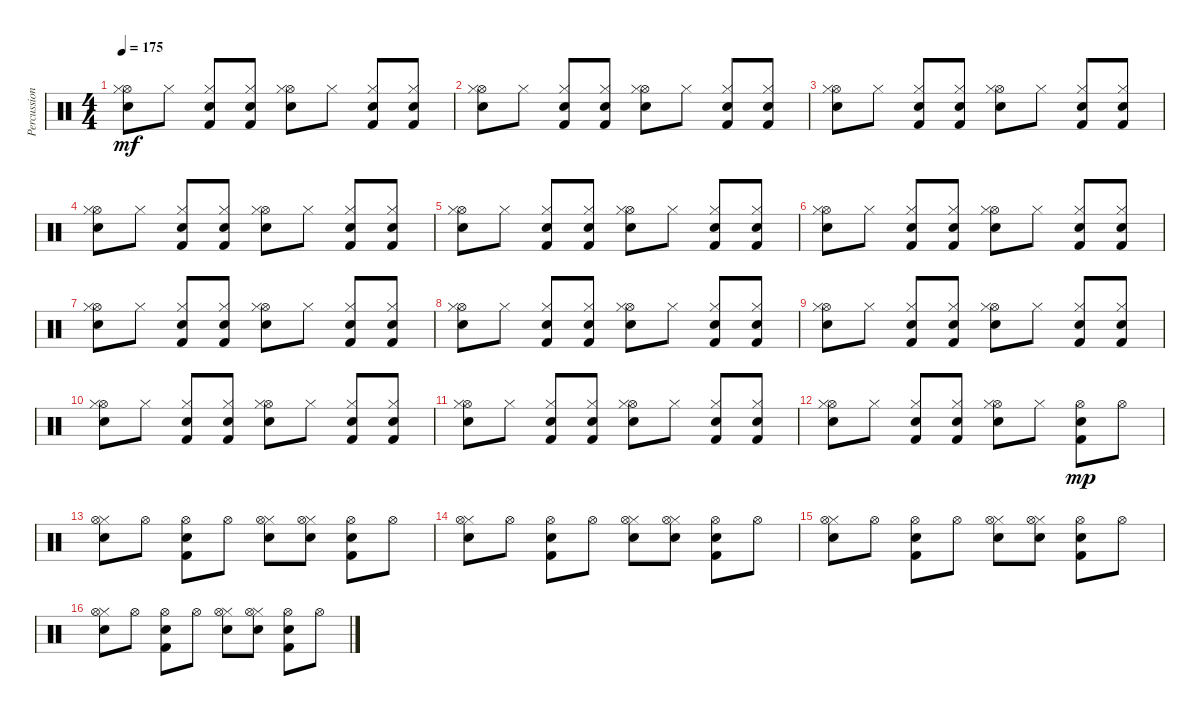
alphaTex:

\track ("Percussions" "Percussion") {instrument percussion}
\staff {score}
\articulation defaults
\ts (4 4)
\tempo 175
\clef neutral
\ks c
("Snare (hit) 2" "Hi-Hat (open)" "Hi-Hat (closed)").8{dy mf} "Hi-Hat (closed)".8 ("Kick (hit) 2" "Snare (hit) 2" "Hi-Hat (closed)").8 ("Kick (hit) 2" "Snare (hit) 2" "Hi-Hat (closed)").8 ("Snare (hit) 2" "Hi-Hat (open)" "Hi-Hat (closed)").8 "Hi-Hat (closed)".8 ("Kick (hit) 2" "Snare (hit) 2" "Hi-Hat (closed)").8 ("Kick (hit) 2" "Snare (hit) 2" "Hi-Hat (closed)").8 |
("Snare (hit) 2" "Hi-Hat (open)" "Hi-Hat (closed)").8 "Hi-Hat (closed)".8 ("Kick (hit) 2" "Snare (hit) 2" "Hi-Hat (closed)").8 ("Kick (hit) 2" "Snare (hit) 2" "Hi-Hat (closed)").8 ("Snare (hit) 2" "Hi-Hat (open)" "Hi-Hat (closed)").8 "Hi-Hat (closed)".8 ("Kick (hit) 2" "Snare (hit) 2" "Hi-Hat (closed)").8 ("Kick (hit) 2" "Snare (hit) 2" "Hi-Hat (closed)").8 |
("Snare (hit) 2" "Hi-Hat (open)" "Hi-Hat (closed)").8 "Hi-Hat (closed)".8 ("Kick (hit) 2" "Snare (hit) 2" "Hi-Hat (closed)").8 ("Kick (hit) 2" "Snare (hit) 2" "Hi-Hat (closed)").8 ("Snare (hit) 2" "Hi-Hat (open)" "Hi-Hat (closed)").8 "Hi-Hat (closed)".8 ("Kick (hit) 2" "Snare (hit) 2" "Hi-Hat (closed)").8 ("Kick (hit) 2" "Snare (hit) 2" "Hi-Hat (closed)").8 |
("Snare (hit) 2" "Hi-Hat (open)" "Hi-Hat (closed)").8 "Hi-Hat (closed)".8 ("Kick (hit) 2" "Snare (hit) 2" "Hi-Hat (closed)").8 ("Kick (hit) 2" "Snare (hit) 2" "Hi-Hat (closed)").8 ("Snare (hit) 2" "Hi-Hat (open)" "Hi-Hat (closed)").8 "Hi-Hat (closed)".8 ("Kick (hit) 2" "Snare (hit) 2" "Hi-Hat (closed)").8 ("Kick (hit) 2" "Snare (hit) 2" "Hi-Hat (closed)").8 |
("Snare (hit) 2" "Hi-Hat (open)" "Hi-Hat (closed)").8 "Hi-Hat (closed)".8 ("Kick (hit) 2" "Snare (hit) 2" "Hi-Hat (closed)").8 ("Kick (hit) 2" "Snare (hit) 2" "Hi-Hat (closed)").8 ("Snare (hit) 2" "Hi-Hat (open)" "Hi-Hat (closed)").8 "Hi-Hat (closed)".8 ("Kick (hit) 2" "Snare (hit) 2" "Hi-Hat (closed)").8 ("Kick (hit) 2" "Snare (hit) 2" "Hi-Hat (closed)").8 |
("Snare (hit) 2" "Hi-Hat (open)" "Hi-Hat (closed)").8 "Hi-Hat (closed)".8 ("Kick (hit) 2" "Snare (hit) 2" "Hi-Hat (closed)").8 ("Kick (hit) 2" "Snare (hit) 2" "Hi-Hat (closed)").8 ("Snare (hit) 2" "Hi-Hat (open)" "Hi-Hat (closed)").8 "Hi-Hat (closed)".8 ("Kick (hit) 2" "Snare (hit) 2" "Hi-Hat (closed)").8 ("Kick (hit) 2" "Snare (hit) 2" "Hi-Hat (closed)").8 |
("Snare (hit) 2" "Hi-Hat (open)" "Hi-Hat (closed)").8 "Hi-Hat (closed)".8 ("Kick (hit) 2" "Snare (hit) 2" "Hi-Hat (closed)").8 ("Kick (hit) 2" "Snare (hit) 2" "Hi-Hat (closed)").8 ("Snare (hit) 2" "Hi-Hat (open)" "Hi-Hat (closed)").8 "Hi-Hat (closed)".8 ("Kick (hit) 2" "Snare (hit) 2" "Hi-Hat (closed)").8 ("Kick (hit) 2" "Snare (hit) 2" "Hi-Hat (closed)").8 |
("Snare (hit) 2" "Hi-Hat (open)" "Hi-Hat (closed)").8 "Hi-Hat (closed)".8 ("Kick (hit) 2" "Snare (hit) 2" "Hi-Hat (closed)").8 ("Kick (hit) 2" "Snare (hit) 2" "Hi-Hat (closed)").8 ("Snare (hit) 2" "Hi-Hat (open)" "Hi-Hat (closed)").8 "Hi-Hat (closed)".8 ("Kick (hit) 2" "Snare (hit) 2" "Hi-Hat (closed)").8 ("Kick (hit) 2" "Snare (hit) 2" "Hi-Hat (closed)").8 |
("Snare (hit) 2" "Hi-Hat (open)" "Hi-Hat (closed)").8 "Hi-Hat (closed)".8 ("Kick (hit) 2" "Snare (hit) 2" "Hi-Hat (closed)").8 ("Kick (hit) 2" "Snare (hit) 2" "Hi-Hat (closed)").8 ("Snare (hit) 2" "Hi-Hat (open)" "Hi-Hat (closed)").8 "Hi-Hat (closed)".8 ("Kick (hit) 2" "Snare (hit) 2" "Hi-Hat (closed)").8 ("Kick (hit) 2" "Snare (hit) 2" "Hi-Hat (closed)").8 |
("Snare (hit) 2" "Hi-Hat (open)" "Hi-Hat (closed)").8 "Hi-Hat (closed)".8 ("Kick (hit) 2" "Snare (hit) 2" "Hi-Hat (closed)").8 ("Kick (hit) 2" "Snare (hit) 2" "Hi-Hat (closed)").8 ("Snare (hit) 2" "Hi-Hat (open)" "Hi-Hat (closed)").8 "Hi-Hat (closed)".8 ("Kick (hit) 2" "Snare (hit) 2" "Hi-Hat (closed)").8 ("Kick (hit) 2" "Snare (hit) 2" "Hi-Hat (closed)").8 |
("Snare (hit) 2" "Hi-Hat (open)" "Hi-Hat (closed)").8 "Hi-Hat (closed)".8 ("Kick (hit) 2" "Snare (hit) 2" "Hi-Hat (closed)").8 ("Kick (hit) 2" "Snare (hit) 2" "Hi-Hat (closed)").8 ("Snare (hit) 2" "Hi-Hat (open)" "Hi-Hat (closed)").8 "Hi-Hat (closed)".8 ("Kick (hit) 2" "Snare (hit) 2" "Hi-Hat (closed)").8 ("Kick (hit) 2" "Snare (hit) 2" "Hi-Hat (closed)").8 |
("Snare (hit) 2" "Hi-Hat (open)" "Hi-Hat (closed)").8 "Hi-Hat (closed)".8 ("Kick (hit) 2" "Snare (hit) 2" "Hi-Hat (closed)").8 ("Kick (hit) 2" "Snare (hit) 2" "Hi-Hat (closed)").8 ("Snare (hit) 2" "Hi-Hat (open)" "Hi-Hat (closed)").8 "Hi-Hat (closed)".8 ("Kick (hit) 2" "Snare (hit) 2" "Hi-Hat (open)").8{dy mp} "Hi-Hat (open)".8 |
("Snare (hit) 2" "Hi-Hat (closed)" "Hi-Hat (open)").8 "Hi-Hat (open)".8 ("Kick (hit) 2" "Snare (hit) 2" "Hi-Hat (open)").8 "Hi-Hat (open)".8 ("Snare (hit) 2" "Hi-Hat (closed)" "Hi-Hat (open)").8 ("Snare (hit) 2" "Hi-Hat (closed)" "Hi-Hat (open)").8 ("Kick (hit) 2" "Snare (hit) 2" "Hi-Hat (open)").8 "Hi-Hat (open)".8 |
("Snare (hit) 2" "Hi-Hat (closed)" "Hi-Hat (open)").8 "Hi-Hat (open)".8 ("Kick (hit) 2" "Snare (hit) 2" "Hi-Hat (open)").8 "Hi-Hat (open)".8 ("Snare (hit) 2" "Hi-Hat (closed)" "Hi-Hat (open)").8 ("Snare (hit) 2" "Hi-Hat (closed)" "Hi-Hat (open)").8 ("Kick (hit) 2" "Snare (hit) 2" "Hi-Hat (open)").8 "Hi-Hat (open)".8 |
("Snare (hit) 2" "Hi-Hat (closed)" "Hi-Hat (open)").8 "Hi-Hat (open)".8 ("Kick (hit) 2" "Snare (hit) 2" "Hi-Hat (open)").8 "Hi-Hat (open)".8 ("Snare (hit) 2" "Hi-Hat (closed)" "Hi-Hat (open)").8 ("Snare (hit) 2" "Hi-Hat (closed)" "Hi-Hat (open)").8 ("Kick (hit) 2" "Snare (hit) 2" "Hi-Hat (open)").8 "Hi-Hat (open)".8 |
("Snare (hit) 2" "Hi-Hat (closed)" "Hi-Hat (open)").8 "Hi-Hat (open)".8 ("Kick (hit) 2" "Snare (hit) 2" "Hi-Hat (open)").8 "Hi-Hat (open)".8 ("Snare (hit) 2" "Hi-Hat (closed)" "Hi-Hat (open)").8 ("Snare (hit) 2" "Hi-Hat (closed)" "Hi-Hat (open)").8 ("Kick (hit) 2" "Snare (hit) 2" "Hi-Hat (open)").8 "Hi-Hat (open)".8
